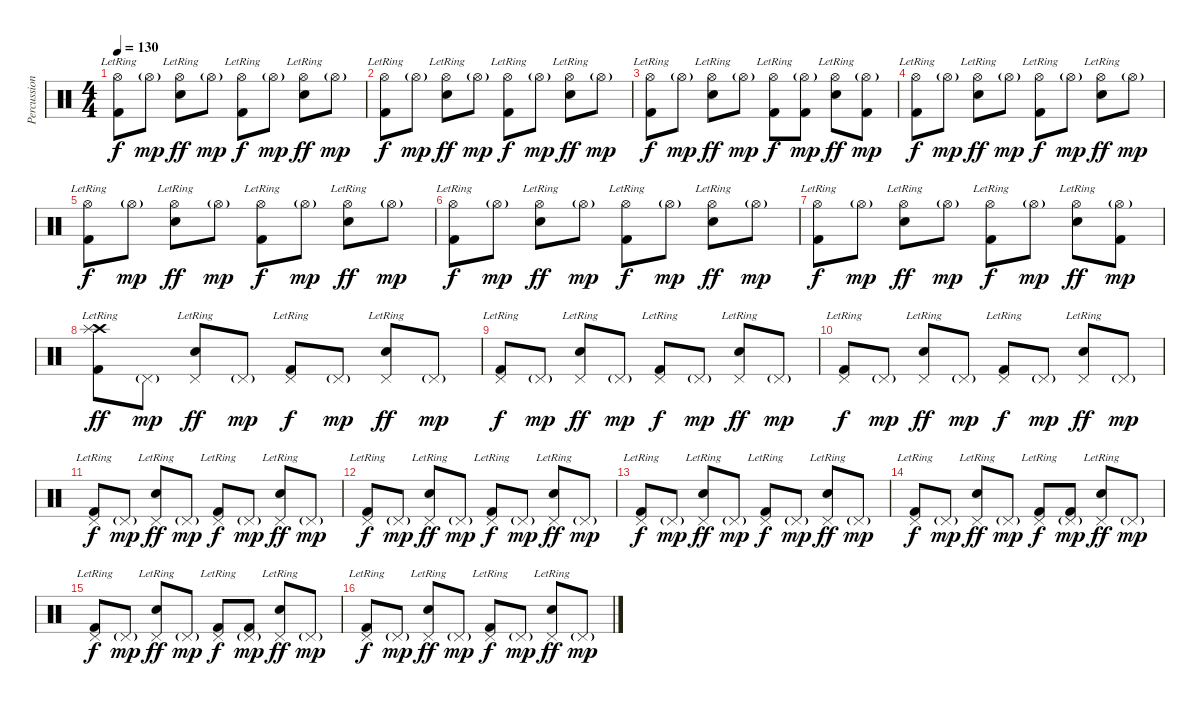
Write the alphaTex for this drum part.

\track ("Percussion" "Percussion") {instrument percussion}
\staff {score}
\articulation defaults
\ts (4 4)
\tempo 130
\clef neutral
\ks c
("Hi-Hat (open)"{lr} "Kick (hit) 2").8{dy f} "Hi-Hat (open)"{g}.8{dy mp} ("Hi-Hat (open)"{lr} "Snare (hit) 2").8{dy ff} "Hi-Hat (open)"{g}.8{dy mp} ("Hi-Hat (open)"{lr} "Kick (hit) 2").8{dy f} "Hi-Hat (open)"{g}.8{dy mp} ("Hi-Hat (open)"{lr} "Snare (hit) 2").8{dy ff} "Hi-Hat (open)"{g}.8{dy mp} |
("Hi-Hat (open)"{lr} "Kick (hit) 2").8{dy f} "Hi-Hat (open)"{g}.8{dy mp} ("Hi-Hat (open)"{lr} "Snare (hit) 2").8{dy ff} "Hi-Hat (open)"{g}.8{dy mp} ("Hi-Hat (open)"{lr} "Kick (hit) 2").8{dy f} "Hi-Hat (open)"{g}.8{dy mp} ("Hi-Hat (open)"{lr} "Snare (hit) 2").8{dy ff} "Hi-Hat (open)"{g}.8{dy mp} |
("Hi-Hat (open)"{lr} "Kick (hit) 2").8{dy f} "Hi-Hat (open)"{g}.8{dy mp} ("Hi-Hat (open)"{lr} "Snare (hit) 2").8{dy ff} "Hi-Hat (open)"{g}.8{dy mp} ("Hi-Hat (open)"{lr} "Kick (hit) 2").8{dy f} ("Hi-Hat (open)"{g} "Kick (hit) 2").8{dy mp} ("Hi-Hat (open)"{lr} "Snare (hit) 2").8{dy ff} ("Hi-Hat (open)"{g} "Kick (hit) 2").8{dy mp} |
("Hi-Hat (open)"{lr} "Kick (hit) 2").8{dy f} "Hi-Hat (open)"{g}.8{dy mp} ("Hi-Hat (open)"{lr} "Snare (hit) 2").8{dy ff} "Hi-Hat (open)"{g}.8{dy mp} ("Hi-Hat (open)"{lr} "Kick (hit) 2").8{dy f} "Hi-Hat (open)"{g}.8{dy mp} ("Hi-Hat (open)"{lr} "Snare (hit) 2").8{dy ff} "Hi-Hat (open)"{g}.8{dy mp} |
("Hi-Hat (open)"{lr} "Kick (hit) 2").8{dy f} "Hi-Hat (open)"{g}.8{dy mp} ("Hi-Hat (open)"{lr} "Snare (hit) 2").8{dy ff} "Hi-Hat (open)"{g}.8{dy mp} ("Hi-Hat (open)"{lr} "Kick (hit) 2").8{dy f} "Hi-Hat (open)"{g}.8{dy mp} ("Hi-Hat (open)"{lr} "Snare (hit) 2").8{dy ff} "Hi-Hat (open)"{g}.8{dy mp} |
("Hi-Hat (open)"{lr} "Kick (hit) 2").8{dy f} "Hi-Hat (open)"{g}.8{dy mp} ("Hi-Hat (open)"{lr} "Snare (hit) 2").8{dy ff} "Hi-Hat (open)"{g}.8{dy mp} ("Hi-Hat (open)"{lr} "Kick (hit) 2").8{dy f} "Hi-Hat (open)"{g}.8{dy mp} ("Hi-Hat (open)"{lr} "Snare (hit) 2").8{dy ff} "Hi-Hat (open)"{g}.8{dy mp} |
("Hi-Hat (open)"{lr} "Kick (hit) 2").8{dy f} "Hi-Hat (open)"{g}.8{dy mp} ("Hi-Hat (open)"{lr} "Snare (hit) 2").8{dy ff} "Hi-Hat (open)"{g}.8{dy mp} ("Hi-Hat (open)"{lr} "Kick (hit) 2").8{dy f} "Hi-Hat (open)"{g}.8{dy mp} ("Hi-Hat (open)"{lr} "Snare (hit) 2").8{dy ff} ("Hi-Hat (open)"{g} "Kick (hit) 2").8{dy mp} |
("Crash high (hit)"{lr} "Splash (hit)"{lr} "Kick (hit) 2").8{dy ff} "Pedal Hi-Hat (hit)"{g}.8{dy mp} ("Pedal Hi-Hat (hit)"{lr} "Snare (hit) 2").8{dy ff} "Pedal Hi-Hat (hit)"{g}.8{dy mp} ("Pedal Hi-Hat (hit)"{lr} "Kick (hit) 2").8{dy f} "Pedal Hi-Hat (hit)"{g}.8{dy mp} ("Pedal Hi-Hat (hit)"{lr} "Snare (hit) 2").8{dy ff} "Pedal Hi-Hat (hit)"{g}.8{dy mp} |
("Pedal Hi-Hat (hit)"{lr} "Kick (hit) 2").8{dy f} "Pedal Hi-Hat (hit)"{g}.8{dy mp} ("Pedal Hi-Hat (hit)"{lr} "Snare (hit) 2").8{dy ff} "Pedal Hi-Hat (hit)"{g}.8{dy mp} ("Pedal Hi-Hat (hit)"{lr} "Kick (hit) 2").8{dy f} "Pedal Hi-Hat (hit)"{g}.8{dy mp} ("Pedal Hi-Hat (hit)"{lr} "Snare (hit) 2").8{dy ff} "Pedal Hi-Hat (hit)"{g}.8{dy mp} |
("Pedal Hi-Hat (hit)"{lr} "Kick (hit) 2").8{dy f} "Pedal Hi-Hat (hit)"{g}.8{dy mp} ("Pedal Hi-Hat (hit)"{lr} "Snare (hit) 2").8{dy ff} "Pedal Hi-Hat (hit)"{g}.8{dy mp} ("Pedal Hi-Hat (hit)"{lr} "Kick (hit) 2").8{dy f} "Pedal Hi-Hat (hit)"{g}.8{dy mp} ("Pedal Hi-Hat (hit)"{lr} "Snare (hit) 2").8{dy ff} "Pedal Hi-Hat (hit)"{g}.8{dy mp} |
("Pedal Hi-Hat (hit)"{lr} "Kick (hit) 2").8{dy f} "Pedal Hi-Hat (hit)"{g}.8{dy mp} ("Pedal Hi-Hat (hit)"{lr} "Snare (hit) 2").8{dy ff} "Pedal Hi-Hat (hit)"{g}.8{dy mp} ("Pedal Hi-Hat (hit)"{lr} "Kick (hit) 2").8{dy f} "Pedal Hi-Hat (hit)"{g}.8{dy mp} ("Pedal Hi-Hat (hit)"{lr} "Snare (hit) 2").8{dy ff} "Pedal Hi-Hat (hit)"{g}.8{dy mp} |
("Pedal Hi-Hat (hit)"{lr} "Kick (hit) 2").8{dy f} "Pedal Hi-Hat (hit)"{g}.8{dy mp} ("Pedal Hi-Hat (hit)"{lr} "Snare (hit) 2").8{dy ff} "Pedal Hi-Hat (hit)"{g}.8{dy mp} ("Pedal Hi-Hat (hit)"{lr} "Kick (hit) 2").8{dy f} "Pedal Hi-Hat (hit)"{g}.8{dy mp} ("Pedal Hi-Hat (hit)"{lr} "Snare (hit) 2").8{dy ff} "Pedal Hi-Hat (hit)"{g}.8{dy mp} |
("Pedal Hi-Hat (hit)"{lr} "Kick (hit) 2").8{dy f} "Pedal Hi-Hat (hit)"{g}.8{dy mp} ("Pedal Hi-Hat (hit)"{lr} "Snare (hit) 2").8{dy ff} "Pedal Hi-Hat (hit)"{g}.8{dy mp} ("Pedal Hi-Hat (hit)"{lr} "Kick (hit) 2").8{dy f} "Pedal Hi-Hat (hit)"{g}.8{dy mp} ("Pedal Hi-Hat (hit)"{lr} "Snare (hit) 2").8{dy ff} "Pedal Hi-Hat (hit)"{g}.8{dy mp} |
("Pedal Hi-Hat (hit)"{lr} "Kick (hit) 2").8{dy f} "Pedal Hi-Hat (hit)"{g}.8{dy mp} ("Pedal Hi-Hat (hit)"{lr} "Snare (hit) 2").8{dy ff} "Pedal Hi-Hat (hit)"{g}.8{dy mp} ("Pedal Hi-Hat (hit)"{lr} "Kick (hit) 2").8{dy f} ("Pedal Hi-Hat (hit)"{g} "Kick (hit) 2").8{dy mp} ("Pedal Hi-Hat (hit)"{lr} "Snare (hit) 2").8{dy ff} "Pedal Hi-Hat (hit)"{g}.8{dy mp} |
("Pedal Hi-Hat (hit)"{lr} "Kick (hit) 2").8{dy f} "Pedal Hi-Hat (hit)"{g}.8{dy mp} ("Pedal Hi-Hat (hit)"{lr} "Snare (hit) 2").8{dy ff} "Pedal Hi-Hat (hit)"{g}.8{dy mp} ("Pedal Hi-Hat (hit)"{lr} "Kick (hit) 2").8{dy f} ("Pedal Hi-Hat (hit)"{g} "Kick (hit) 2").8{dy mp} ("Pedal Hi-Hat (hit)"{lr} "Snare (hit) 2").8{dy ff} "Pedal Hi-Hat (hit)"{g}.8{dy mp} |
("Pedal Hi-Hat (hit)"{lr} "Kick (hit) 2").8{dy f} "Pedal Hi-Hat (hit)"{g}.8{dy mp} ("Pedal Hi-Hat (hit)"{lr} "Snare (hit) 2").8{dy ff} "Pedal Hi-Hat (hit)"{g}.8{dy mp} ("Pedal Hi-Hat (hit)"{lr} "Kick (hit) 2").8{dy f} "Pedal Hi-Hat (hit)"{g}.8{dy mp} ("Pedal Hi-Hat (hit)"{lr} "Snare (hit) 2").8{dy ff} "Pedal Hi-Hat (hit)"{g}.8{dy mp}
